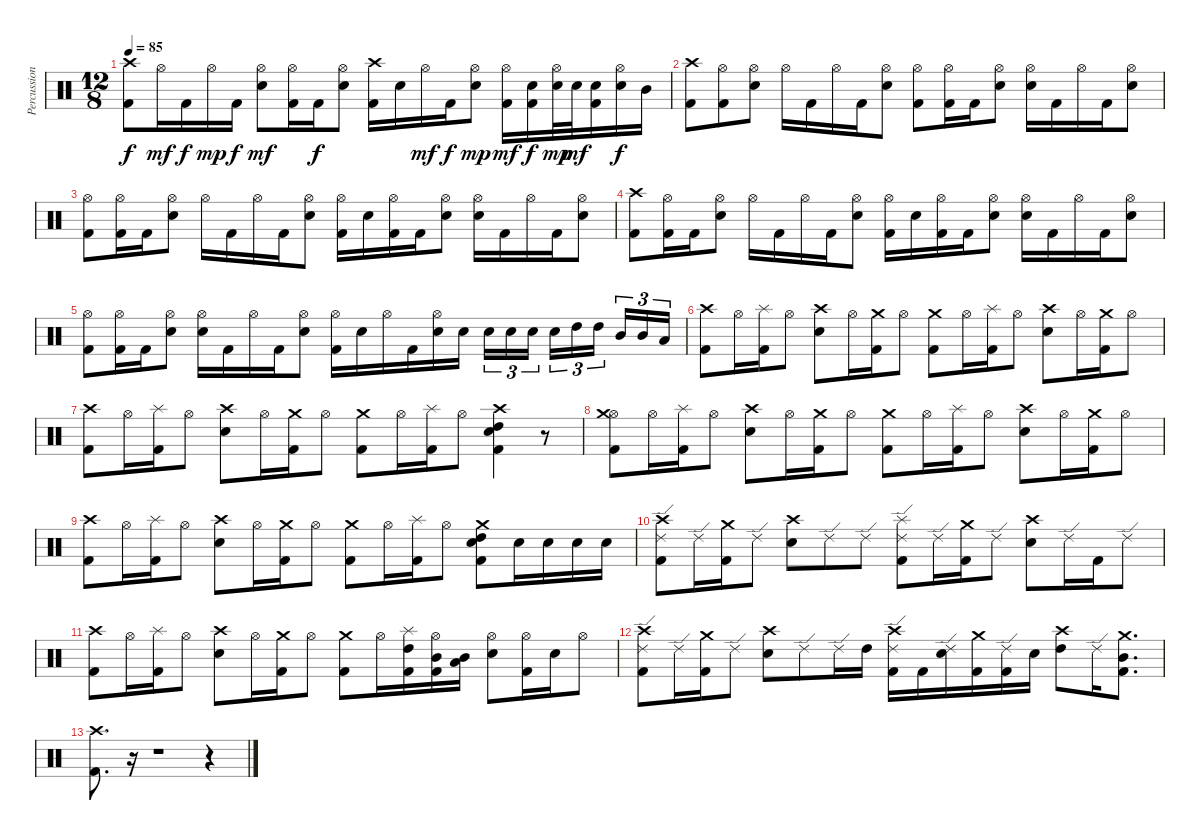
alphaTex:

\track ("Percussion" "Percussion") {instrument percussion}
\staff {score}
\articulation defaults
\ts (12 8)
\tempo 85
\clef neutral
\ks c
("Crash high (hit)" "Kick (hit) 2").8{dy f} "Hi-Hat (open)".16{dy mf} "Kick (hit) 2".16{dy f} "Hi-Hat (open)".16{dy mp} "Kick (hit) 2".16{dy f} ("Hi-Hat (open)" "Snare (hit) 2").8{dy mf} ("Hi-Hat (open)" "Kick (hit) 2").16 "Kick (hit) 2".16{dy f} ("Hi-Hat (open)" "Snare (hit) 2").8 ("Crash high (hit)" "Kick (hit) 2").16 "Snare (hit) 2".16 "Hi-Hat (open)".16{dy mf} "Kick (hit) 2".16{dy f} ("Hi-Hat (open)" "Snare (hit) 2").8{dy mp} ("Hi-Hat (open)" "Kick (hit) 2").16{dy mf} ("Snare (hit) 2" "Kick (hit) 2").16{dy f} ("Hi-Hat (open)" "Snare (hit) 2").32{dy mp} "Snare (hit) 2".32{dy mf} ("Snare (hit) 2" "Kick (hit) 2").16 ("Hi-Hat (open)" "Snare (hit) 2").16{dy f} "Mid Tom (hit)".16 |
("Crash high (hit)" "Kick (hit) 2").8 ("Hi-Hat (open)" "Kick (hit) 2").8 ("Hi-Hat (open)" "Snare (hit) 2").8 "Hi-Hat (open)".16 "Kick (hit) 2".16 "Hi-Hat (open)".16 "Kick (hit) 2".16 ("Hi-Hat (open)" "Snare (hit) 2").8 ("Hi-Hat (open)" "Kick (hit) 2").8 ("Hi-Hat (open)" "Kick (hit) 2").16 "Kick (hit) 2".16 ("Hi-Hat (open)" "Snare (hit) 2").8 ("Hi-Hat (open)" "Snare (hit) 2").16 "Kick (hit) 2".16 "Hi-Hat (open)".16 "Kick (hit) 2".16 ("Hi-Hat (open)" "Snare (hit) 2").8 |
("Hi-Hat (open)" "Kick (hit) 2").8 ("Hi-Hat (open)" "Kick (hit) 2").16 "Kick (hit) 2".16 ("Hi-Hat (open)" "Snare (hit) 2").8 "Hi-Hat (open)".16 "Kick (hit) 2".16 "Hi-Hat (open)".16 "Kick (hit) 2".16 ("Hi-Hat (open)" "Snare (hit) 2").8 ("Hi-Hat (open)" "Kick (hit) 2").16 "Snare (hit) 2".16 ("Hi-Hat (open)" "Kick (hit) 2").16 "Kick (hit) 2".16 ("Hi-Hat (open)" "Snare (hit) 2").8 ("Hi-Hat (open)" "Snare (hit) 2").16 "Kick (hit) 2".16 "Hi-Hat (open)".16 "Kick (hit) 2".16 ("Hi-Hat (open)" "Snare (hit) 2").8 |
("Crash high (hit)" "Kick (hit) 2").8 ("Hi-Hat (open)" "Kick (hit) 2").16 "Kick (hit) 2".16 ("Hi-Hat (open)" "Snare (hit) 2").8 "Hi-Hat (open)".16 "Kick (hit) 2".16 "Hi-Hat (open)".16 "Kick (hit) 2".16 ("Hi-Hat (open)" "Snare (hit) 2").8 ("Hi-Hat (open)" "Kick (hit) 2").16 "Snare (hit) 2".16 ("Hi-Hat (open)" "Kick (hit) 2").16 "Kick (hit) 2".16 ("Hi-Hat (open)" "Snare (hit) 2").8 ("Hi-Hat (open)" "Snare (hit) 2").16 "Kick (hit) 2".16 "Hi-Hat (open)".16 "Kick (hit) 2".16 ("Hi-Hat (open)" "Snare (hit) 2").8 |
("Hi-Hat (open)" "Kick (hit) 2").8 ("Hi-Hat (open)" "Kick (hit) 2").16 "Kick (hit) 2".16 ("Hi-Hat (open)" "Snare (hit) 2").8 ("Hi-Hat (open)" "Snare (hit) 2").16 "Kick (hit) 2".16 "Hi-Hat (open)".16 "Kick (hit) 2".16 ("Hi-Hat (open)" "Snare (hit) 2").8 ("Hi-Hat (open)" "Kick (hit) 2").16 "Snare (hit) 2".16 "Hi-Hat (open)".16 "Kick (hit) 2".16 ("Hi-Hat (open)" "Snare (hit) 2").16 "Snare (hit) 2".16 "Electric Snare (hit)".16{tu (3 2)} "Electric Snare (hit)".16{tu (3 2)} "Electric Snare (hit)".16{tu (3 2) beam splitsecondary} "Electric Snare (hit)".16{tu (3 2)} "High Tom (hit)".16{tu (3 2)} "High Tom (hit)".16{tu (3 2) beam splitsecondary} "Mid Tom (hit)".16{tu (3 2)} "Mid Tom (hit)".16{tu (3 2)} "Low Tom (hit)".16{tu (3 2)} |
("Crash high (hit)" "Kick (hit) 2").8 "Hi-Hat (open)".16 ("Splash (hit)" "Kick (hit) 2").16 "Hi-Hat (open)".8 ("Crash high (hit)" "Snare (hit) 2").8 "Hi-Hat (open)".16 ("Crash medium (hit)" "Kick (hit) 2").16 "Hi-Hat (open)".8 ("Crash medium (hit)" "Kick (hit) 2").8 "Hi-Hat (open)".16 ("Splash (hit)" "Kick (hit) 2").16 "Hi-Hat (open)".8 ("Crash high (hit)" "Snare (hit) 2").8 "Hi-Hat (open)".16 ("Crash medium (hit)" "Kick (hit) 2").16 "Hi-Hat (open)".8 |
("Crash high (hit)" "Kick (hit) 2").8 "Hi-Hat (open)".16 ("Splash (hit)" "Kick (hit) 2").16 "Hi-Hat (open)".8 ("Crash high (hit)" "Snare (hit) 2").8 "Hi-Hat (open)".16 ("Crash medium (hit)" "Kick (hit) 2").16 "Hi-Hat (open)".8 ("Crash medium (hit)" "Kick (hit) 2").8 "Hi-Hat (open)".16 ("Splash (hit)" "Kick (hit) 2").16 "Hi-Hat (open)".8 ("Crash high (hit)" "High Tom (hit)" "Snare (hit) 2" "Kick (hit) 2").4 r.8 |
("Hi-Hat (open)" "Crash medium (hit)" "Kick (hit) 2").8 "Hi-Hat (open)".16 ("Splash (hit)" "Kick (hit) 2").16 "Hi-Hat (open)".8 ("Crash high (hit)" "Snare (hit) 2").8 "Hi-Hat (open)".16 ("Crash medium (hit)" "Kick (hit) 2").16 "Hi-Hat (open)".8 ("Crash medium (hit)" "Kick (hit) 2").8 "Hi-Hat (open)".16 ("Splash (hit)" "Kick (hit) 2").16 "Hi-Hat (open)".8 ("Crash high (hit)" "Snare (hit) 2").8 "Hi-Hat (open)".16 ("Crash medium (hit)" "Kick (hit) 2").16 "Hi-Hat (open)".8 |
("Crash high (hit)" "Kick (hit) 2").8 "Hi-Hat (open)".16 ("Splash (hit)" "Kick (hit) 2").16 "Hi-Hat (open)".8 ("Crash high (hit)" "Snare (hit) 2").8 "Hi-Hat (open)".16 ("Crash medium (hit)" "Kick (hit) 2").16 "Hi-Hat (open)".8 ("Crash medium (hit)" "Kick (hit) 2").8 "Hi-Hat (open)".16 ("Splash (hit)" "Kick (hit) 2").16 "Hi-Hat (open)".8 ("Crash medium (hit)" "High Tom (hit)" "Snare (hit) 2" "Kick (hit) 2").8 "Electric Snare (hit)".16 "Electric Snare (hit)".16 "Electric Snare (hit)".16 "Electric Snare (hit)".16 |
("Ride (edge) 2" "Crash high (hit)" "Kick (hit) 2").8 "Ride (edge) 2".16 ("Crash medium (hit)" "Kick (hit) 2").16 "Ride (edge) 2".8 ("Crash high (hit)" "Snare (hit) 2").8 "Ride (edge) 2".8 "Ride (edge) 2".8 ("Ride (edge) 2" "Splash (hit)" "Kick (hit) 2").8 "Ride (edge) 2".16 ("Crash medium (hit)" "Kick (hit) 2").16 "Ride (edge) 2".8 ("Crash high (hit)" "Snare (hit) 2").8 "Ride (edge) 2".16 "Kick (hit) 2".16 "Ride (edge) 2".8 |
("Crash high (hit)" "Kick (hit) 2").8 "Hi-Hat (open)".16 ("Splash (hit)" "Kick (hit) 2").16 "Hi-Hat (open)".8 ("Crash high (hit)" "Snare (hit) 2").8 "Hi-Hat (open)".16 ("Crash medium (hit)" "Kick (hit) 2").16 "Hi-Hat (open)".8 ("Crash medium (hit)" "Kick (hit) 2").8 "Hi-Hat (open)".16 ("Splash (hit)" "High Tom (hit)" "Kick (hit) 2").16 ("Hi-Hat (open)" "Mid Tom (hit)" "Kick (hit) 2").16 ("Low Tom (hit)" "Mid Tom (hit)").16 ("Hi-Hat (open)" "Snare (hit) 2").8 ("Hi-Hat (open)" "Kick (hit) 2").16 "Snare (hit) 2".16 "Hi-Hat (open)".8 |
("Ride (edge) 2" "Crash high (hit)" "Kick (hit) 2").8 "Ride (edge) 2".16 ("Crash medium (hit)" "Kick (hit) 2").16 "Ride (edge) 2".8 ("Crash high (hit)" "Snare (hit) 2").8 "Ride (edge) 2".8 "Ride (edge) 2".16 "High Tom (hit)".16 ("Ride (edge) 2" "Crash high (hit)" "Kick (hit) 2").16 "Kick (hit) 2".16 ("Ride (edge) 2" "Snare (hit) 2").16 ("Crash medium (hit)" "Kick (hit) 2").16 ("Ride (edge) 2" "Kick (hit) 2").16 "Snare (hit) 2".16 ("Crash high (hit)" "High Tom (hit)").8 "Ride (edge) 2".16 ("Crash medium (hit)" "Mid Tom (hit)" "Kick (hit) 2").8{d} |
("Crash high (hit)" "Kick (hit) 2").8{d} r.16 r.1 r.4
